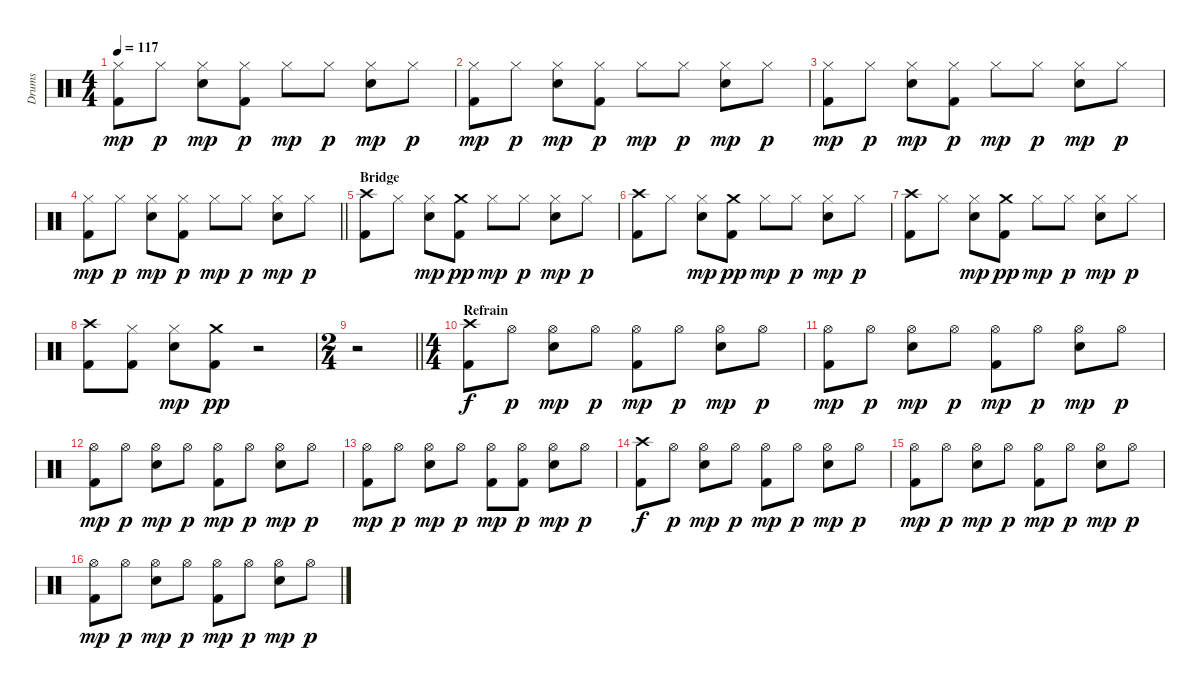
\track ("Drums" "Drums") {instrument percussion}
\staff {score}
\articulation defaults
\ts (4 4)
\tempo 117
\clef neutral
\ks c
("Hi-Hat (closed)" "Kick (hit) 2").8{dy mp} "Hi-Hat (closed)".8{dy p} ("Hi-Hat (closed)" "Snare (hit) 2").8{dy mp} ("Hi-Hat (closed)" "Kick (hit) 2").8{dy p} "Hi-Hat (closed)".8{dy mp} "Hi-Hat (closed)".8{dy p} ("Hi-Hat (closed)" "Snare (hit) 2").8{dy mp} "Hi-Hat (closed)".8{dy p} |
("Hi-Hat (closed)" "Kick (hit) 2").8{dy mp} "Hi-Hat (closed)".8{dy p} ("Hi-Hat (closed)" "Snare (hit) 2").8{dy mp} ("Hi-Hat (closed)" "Kick (hit) 2").8{dy p} "Hi-Hat (closed)".8{dy mp} "Hi-Hat (closed)".8{dy p} ("Hi-Hat (closed)" "Snare (hit) 2").8{dy mp} "Hi-Hat (closed)".8{dy p} |
("Hi-Hat (closed)" "Kick (hit) 2").8{dy mp} "Hi-Hat (closed)".8{dy p} ("Hi-Hat (closed)" "Snare (hit) 2").8{dy mp} ("Hi-Hat (closed)" "Kick (hit) 2").8{dy p} "Hi-Hat (closed)".8{dy mp} "Hi-Hat (closed)".8{dy p} ("Hi-Hat (closed)" "Snare (hit) 2").8{dy mp} "Hi-Hat (closed)".8{dy p} |
\barLineRight lightlight
("Hi-Hat (closed)" "Kick (hit) 2").8{dy mp} "Hi-Hat (closed)".8{dy p} ("Hi-Hat (closed)" "Snare (hit) 2").8{dy mp} ("Hi-Hat (closed)" "Kick (hit) 2").8{dy p} "Hi-Hat (closed)".8{dy mp} "Hi-Hat (closed)".8{dy p} ("Hi-Hat (closed)" "Snare (hit) 2").8{dy mp} "Hi-Hat (closed)".8{dy p} |
\section ("" "Bridge")
("Crash high (hit)" "Kick (hit) 2").8 "Hi-Hat (closed)".8 ("Hi-Hat (closed)" "Snare (hit) 2").8{dy mp} ("Crash medium (hit)" "Kick (hit) 2").8{dy pp} "Hi-Hat (closed)".8{dy mp} "Hi-Hat (closed)".8{dy p} ("Hi-Hat (closed)" "Snare (hit) 2").8{dy mp} "Hi-Hat (closed)".8{dy p} |
("Crash high (hit)" "Kick (hit) 2").8 "Hi-Hat (closed)".8 ("Hi-Hat (closed)" "Snare (hit) 2").8{dy mp} ("Crash medium (hit)" "Kick (hit) 2").8{dy pp} "Hi-Hat (closed)".8{dy mp} "Hi-Hat (closed)".8{dy p} ("Hi-Hat (closed)" "Snare (hit) 2").8{dy mp} "Hi-Hat (closed)".8{dy p} |
("Crash high (hit)" "Kick (hit) 2").8 "Hi-Hat (closed)".8 ("Hi-Hat (closed)" "Snare (hit) 2").8{dy mp} ("Crash medium (hit)" "Kick (hit) 2").8{dy pp} "Hi-Hat (closed)".8{dy mp} "Hi-Hat (closed)".8{dy p} ("Hi-Hat (closed)" "Snare (hit) 2").8{dy mp} "Hi-Hat (closed)".8{dy p} |
("Crash high (hit)" "Kick (hit) 2").8 ("Hi-Hat (closed)" "Kick (hit) 2").8 ("Hi-Hat (closed)" "Snare (hit) 2").8{dy mp} ("Crash medium (hit)" "Kick (hit) 2").8{dy pp} r.2 |
\ts (2 4)
\barLineRight lightlight
r.2 |
\ts (4 4)
\section ("" "Refrain")
("Crash high (hit)" "Kick (hit) 2").8{dy f} "Hi-Hat (open)".8{dy p} ("Hi-Hat (open)" "Snare (hit) 2").8{dy mp} "Hi-Hat (open)".8{dy p} ("Hi-Hat (open)" "Kick (hit) 2").8{dy mp} "Hi-Hat (open)".8{dy p} ("Hi-Hat (open)" "Snare (hit) 2").8{dy mp} "Hi-Hat (open)".8{dy p} |
("Hi-Hat (open)" "Kick (hit) 2").8{dy mp} "Hi-Hat (open)".8{dy p} ("Hi-Hat (open)" "Snare (hit) 2").8{dy mp} "Hi-Hat (open)".8{dy p} ("Hi-Hat (open)" "Kick (hit) 2").8{dy mp} "Hi-Hat (open)".8{dy p} ("Hi-Hat (open)" "Snare (hit) 2").8{dy mp} "Hi-Hat (open)".8{dy p} |
("Hi-Hat (open)" "Kick (hit) 2").8{dy mp} "Hi-Hat (open)".8{dy p} ("Hi-Hat (open)" "Snare (hit) 2").8{dy mp} "Hi-Hat (open)".8{dy p} ("Hi-Hat (open)" "Kick (hit) 2").8{dy mp} "Hi-Hat (open)".8{dy p} ("Hi-Hat (open)" "Snare (hit) 2").8{dy mp} "Hi-Hat (open)".8{dy p} |
("Hi-Hat (open)" "Kick (hit) 2").8{dy mp} "Hi-Hat (open)".8{dy p} ("Hi-Hat (open)" "Snare (hit) 2").8{dy mp} "Hi-Hat (open)".8{dy p} ("Hi-Hat (open)" "Kick (hit) 2").8{dy mp} ("Hi-Hat (open)" "Kick (hit) 2").8{dy p} ("Hi-Hat (open)" "Snare (hit) 2").8{dy mp} "Hi-Hat (open)".8{dy p} |
("Crash high (hit)" "Kick (hit) 2").8{dy f} "Hi-Hat (open)".8{dy p} ("Hi-Hat (open)" "Snare (hit) 2").8{dy mp} "Hi-Hat (open)".8{dy p} ("Hi-Hat (open)" "Kick (hit) 2").8{dy mp} "Hi-Hat (open)".8{dy p} ("Hi-Hat (open)" "Snare (hit) 2").8{dy mp} "Hi-Hat (open)".8{dy p} |
("Hi-Hat (open)" "Kick (hit) 2").8{dy mp} "Hi-Hat (open)".8{dy p} ("Hi-Hat (open)" "Snare (hit) 2").8{dy mp} "Hi-Hat (open)".8{dy p} ("Hi-Hat (open)" "Kick (hit) 2").8{dy mp} "Hi-Hat (open)".8{dy p} ("Hi-Hat (open)" "Snare (hit) 2").8{dy mp} "Hi-Hat (open)".8{dy p} |
("Hi-Hat (open)" "Kick (hit) 2").8{dy mp} "Hi-Hat (open)".8{dy p} ("Hi-Hat (open)" "Snare (hit) 2").8{dy mp} "Hi-Hat (open)".8{dy p} ("Hi-Hat (open)" "Kick (hit) 2").8{dy mp} "Hi-Hat (open)".8{dy p} ("Hi-Hat (open)" "Snare (hit) 2").8{dy mp} "Hi-Hat (open)".8{dy p}
